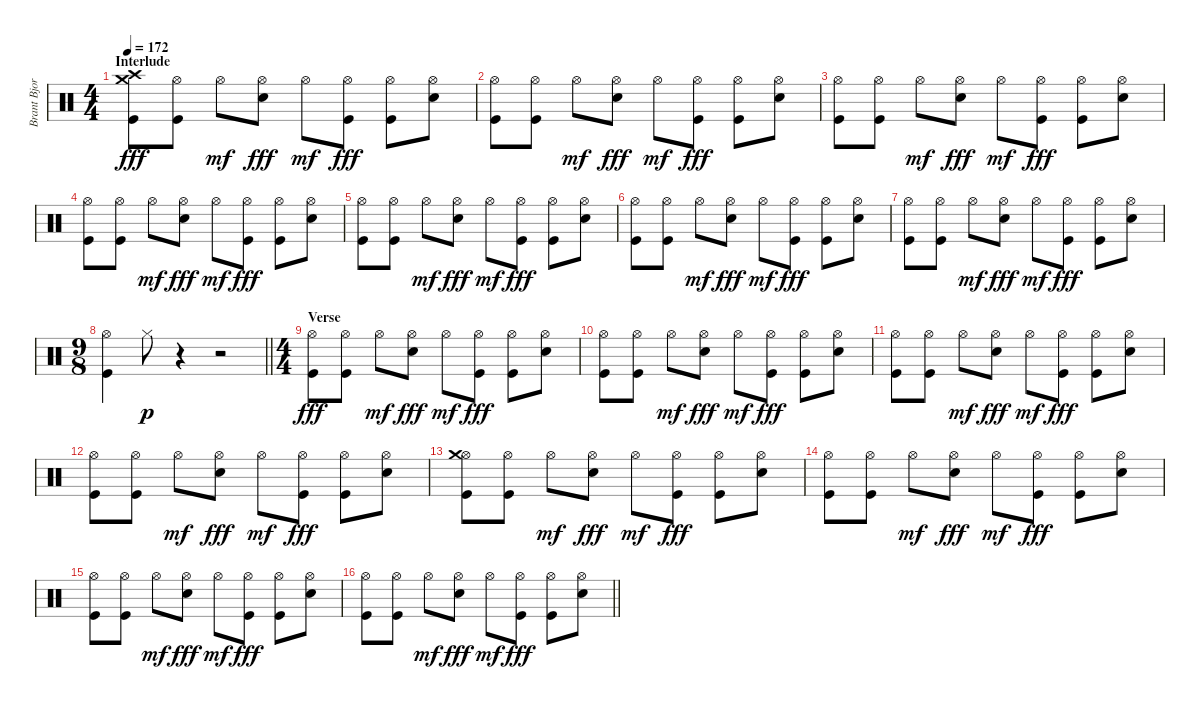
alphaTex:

\track ("Brant Bjork" "Brant Bjor") {instrument percussion}
\staff {score}
\articulation defaults
\ts (4 4)
\section ("" "Interlude")
\tempo 172
\clef neutral
\ks c
("Crash high (hit)" "Crash medium (hit)" "Kick (hit)").8{dy fff} ("Hi-Hat (open)" "Kick (hit)").8 "Hi-Hat (open)".8{dy mf} ("Hi-Hat (open)" "Snare (hit) 2").8{dy fff} "Hi-Hat (open)".8{dy mf} ("Hi-Hat (open)" "Kick (hit)").8{dy fff} ("Hi-Hat (open)" "Kick (hit)").8 ("Hi-Hat (open)" "Snare (hit) 2").8 |
("Hi-Hat (open)" "Kick (hit)").8 ("Hi-Hat (open)" "Kick (hit)").8 "Hi-Hat (open)".8{dy mf} ("Hi-Hat (open)" "Snare (hit) 2").8{dy fff} "Hi-Hat (open)".8{dy mf} ("Hi-Hat (open)" "Kick (hit)").8{dy fff} ("Hi-Hat (open)" "Kick (hit)").8 ("Hi-Hat (open)" "Snare (hit) 2").8 |
("Hi-Hat (open)" "Kick (hit)").8 ("Hi-Hat (open)" "Kick (hit)").8 "Hi-Hat (open)".8{dy mf} ("Hi-Hat (open)" "Snare (hit) 2").8{dy fff} "Hi-Hat (open)".8{dy mf} ("Hi-Hat (open)" "Kick (hit)").8{dy fff} ("Hi-Hat (open)" "Kick (hit)").8 ("Hi-Hat (open)" "Snare (hit) 2").8 |
("Hi-Hat (open)" "Kick (hit)").8 ("Hi-Hat (open)" "Kick (hit)").8 "Hi-Hat (open)".8{dy mf} ("Hi-Hat (open)" "Snare (hit) 2").8{dy fff} "Hi-Hat (open)".8{dy mf} ("Hi-Hat (open)" "Kick (hit)").8{dy fff} ("Hi-Hat (open)" "Kick (hit)").8 ("Hi-Hat (open)" "Snare (hit) 2").8 |
("Hi-Hat (open)" "Kick (hit)").8 ("Hi-Hat (open)" "Kick (hit)").8 "Hi-Hat (open)".8{dy mf} ("Hi-Hat (open)" "Snare (hit) 2").8{dy fff} "Hi-Hat (open)".8{dy mf} ("Hi-Hat (open)" "Kick (hit)").8{dy fff} ("Hi-Hat (open)" "Kick (hit)").8 ("Hi-Hat (open)" "Snare (hit) 2").8 |
("Hi-Hat (open)" "Kick (hit)").8 ("Hi-Hat (open)" "Kick (hit)").8 "Hi-Hat (open)".8{dy mf} ("Hi-Hat (open)" "Snare (hit) 2").8{dy fff} "Hi-Hat (open)".8{dy mf} ("Hi-Hat (open)" "Kick (hit)").8{dy fff} ("Hi-Hat (open)" "Kick (hit)").8 ("Hi-Hat (open)" "Snare (hit) 2").8 |
("Hi-Hat (open)" "Kick (hit)").8 ("Hi-Hat (open)" "Kick (hit)").8 "Hi-Hat (open)".8{dy mf} ("Hi-Hat (open)" "Snare (hit) 2").8{dy fff} "Hi-Hat (open)".8{dy mf} ("Hi-Hat (open)" "Kick (hit)").8{dy fff} ("Hi-Hat (open)" "Kick (hit)").8 ("Hi-Hat (open)" "Snare (hit) 2").8 |
\ts (9 8)
\barLineRight lightlight
("Hi-Hat (open)" "Kick (hit)").4 "Hi-Hat (closed)".8{dy p} r.4 r.2 |
\ts (4 4)
\section ("" "Verse")
("Hi-Hat (open)" "Kick (hit)").8{dy fff} ("Hi-Hat (open)" "Kick (hit)").8 "Hi-Hat (open)".8{dy mf} ("Hi-Hat (open)" "Snare (hit) 2").8{dy fff} "Hi-Hat (open)".8{dy mf} ("Hi-Hat (open)" "Kick (hit)").8{dy fff} ("Hi-Hat (open)" "Kick (hit)").8 ("Hi-Hat (open)" "Snare (hit) 2").8 |
("Hi-Hat (open)" "Kick (hit)").8 ("Hi-Hat (open)" "Kick (hit)").8 "Hi-Hat (open)".8{dy mf} ("Hi-Hat (open)" "Snare (hit) 2").8{dy fff} "Hi-Hat (open)".8{dy mf} ("Hi-Hat (open)" "Kick (hit)").8{dy fff} ("Hi-Hat (open)" "Kick (hit)").8 ("Hi-Hat (open)" "Snare (hit) 2").8 |
("Hi-Hat (open)" "Kick (hit)").8 ("Hi-Hat (open)" "Kick (hit)").8 "Hi-Hat (open)".8{dy mf} ("Hi-Hat (open)" "Snare (hit) 2").8{dy fff} "Hi-Hat (open)".8{dy mf} ("Hi-Hat (open)" "Kick (hit)").8{dy fff} ("Hi-Hat (open)" "Kick (hit)").8 ("Hi-Hat (open)" "Snare (hit) 2").8 |
("Hi-Hat (open)" "Kick (hit)").8 ("Hi-Hat (open)" "Kick (hit)").8 "Hi-Hat (open)".8{dy mf} ("Hi-Hat (open)" "Snare (hit) 2").8{dy fff} "Hi-Hat (open)".8{dy mf} ("Hi-Hat (open)" "Kick (hit)").8{dy fff} ("Hi-Hat (open)" "Kick (hit)").8 ("Hi-Hat (open)" "Snare (hit) 2").8 |
("Hi-Hat (open)" "Crash medium (hit)" "Kick (hit)").8 ("Hi-Hat (open)" "Kick (hit)").8 "Hi-Hat (open)".8{dy mf} ("Hi-Hat (open)" "Snare (hit) 2").8{dy fff} "Hi-Hat (open)".8{dy mf} ("Hi-Hat (open)" "Kick (hit)").8{dy fff} ("Hi-Hat (open)" "Kick (hit)").8 ("Hi-Hat (open)" "Snare (hit) 2").8 |
("Hi-Hat (open)" "Kick (hit)").8 ("Hi-Hat (open)" "Kick (hit)").8 "Hi-Hat (open)".8{dy mf} ("Hi-Hat (open)" "Snare (hit) 2").8{dy fff} "Hi-Hat (open)".8{dy mf} ("Hi-Hat (open)" "Kick (hit)").8{dy fff} ("Hi-Hat (open)" "Kick (hit)").8 ("Hi-Hat (open)" "Snare (hit) 2").8 |
("Hi-Hat (open)" "Kick (hit)").8 ("Hi-Hat (open)" "Kick (hit)").8 "Hi-Hat (open)".8{dy mf} ("Hi-Hat (open)" "Snare (hit) 2").8{dy fff} "Hi-Hat (open)".8{dy mf} ("Hi-Hat (open)" "Kick (hit)").8{dy fff} ("Hi-Hat (open)" "Kick (hit)").8 ("Hi-Hat (open)" "Snare (hit) 2").8 |
\barLineRight lightlight
("Hi-Hat (open)" "Kick (hit)").8 ("Hi-Hat (open)" "Kick (hit)").8 "Hi-Hat (open)".8{dy mf} ("Hi-Hat (open)" "Snare (hit) 2").8{dy fff} "Hi-Hat (open)".8{dy mf} ("Hi-Hat (open)" "Kick (hit)").8{dy fff} ("Hi-Hat (open)" "Kick (hit)").8 ("Hi-Hat (open)" "Snare (hit) 2").8
